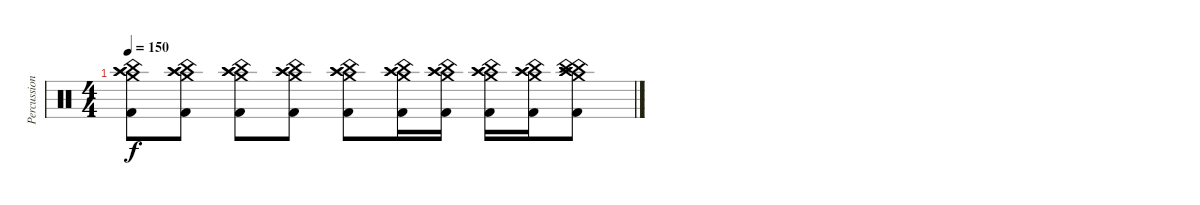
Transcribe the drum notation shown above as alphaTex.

\track ("Percussions" "Percussion") {instrument percussion}
\staff {score}
\articulation defaults
\ts (4 4)
\tempo 150
\clef neutral
\ks c
("Kick (hit) 2" "Crash high (hit)" "Crash high (hit)" "China (hit)" "Crash medium (hit)").8{dy f} ("Kick (hit) 2" "Crash high (hit)" "Crash high (hit)" "China (hit)" "Crash medium (hit)").8 ("Kick (hit) 2" "Crash high (hit)" "Crash high (hit)" "China (hit)" "Crash medium (hit)").8 ("Kick (hit) 2" "Crash high (hit)" "Crash high (hit)" "China (hit)" "Crash medium (hit)").8 ("Kick (hit) 2" "Crash high (hit)" "Crash high (hit)" "China (hit)" "Crash medium (hit)").8 ("Kick (hit) 2" "Crash high (hit)" "Crash high (hit)" "China (hit)" "Crash medium (hit)").16 ("Kick (hit) 2" "Crash high (hit)" "Crash high (hit)" "China (hit)" "Crash medium (hit)").16 ("Kick (hit) 2" "Crash high (hit)" "Crash high (hit)" "China (hit)" "Crash medium (hit)").16 ("Kick (hit) 2" "Crash high (hit)" "Crash high (hit)" "China (hit)" "Crash medium (hit)").16 ("Kick (hit) 2" "Crash high (hit)" "Crash high (hit)" "China (hit)" "China (hit)" "Crash medium (hit)").8
